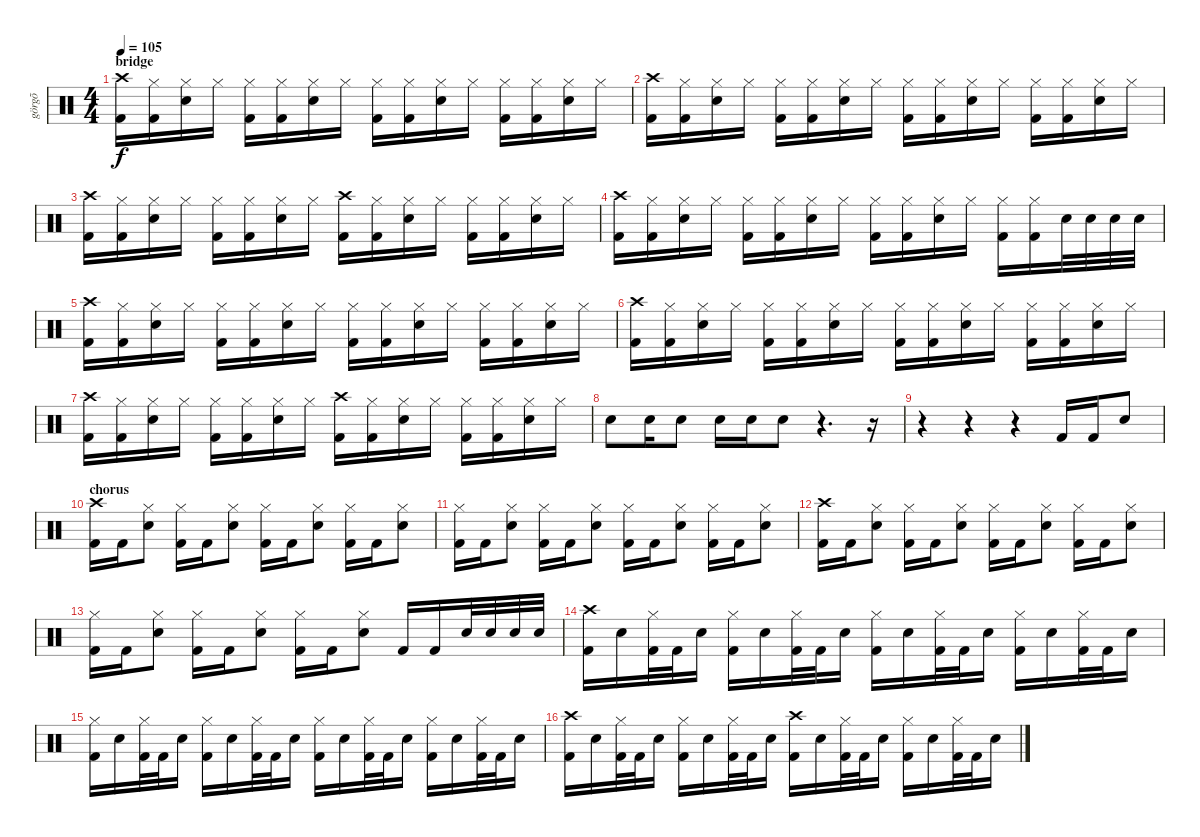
\track ("görgõ" "görgõ") {instrument percussion}
\staff {score}
\articulation defaults
\ts (4 4)
\section ("" "bridge")
\tempo 105
\clef neutral
\ks c
("Crash high (hit)" "Kick (hit) 2").16{dy f} ("Hi-Hat (closed)" "Kick (hit) 2").16 ("Hi-Hat (closed)" "Snare (hit) 2").16 "Hi-Hat (closed)".16 ("Hi-Hat (closed)" "Kick (hit) 2").16 ("Hi-Hat (closed)" "Kick (hit) 2").16 ("Hi-Hat (closed)" "Snare (hit) 2").16 "Hi-Hat (closed)".16 ("Hi-Hat (closed)" "Kick (hit) 2").16 ("Hi-Hat (closed)" "Kick (hit) 2").16 ("Hi-Hat (closed)" "Snare (hit) 2").16 "Hi-Hat (closed)".16 ("Hi-Hat (closed)" "Kick (hit) 2").16 ("Hi-Hat (closed)" "Kick (hit) 2").16 ("Hi-Hat (closed)" "Snare (hit) 2").16 "Hi-Hat (closed)".16 |
("Crash high (hit)" "Kick (hit) 2").16 ("Hi-Hat (closed)" "Kick (hit) 2").16 ("Hi-Hat (closed)" "Snare (hit) 2").16 "Hi-Hat (closed)".16 ("Hi-Hat (closed)" "Kick (hit) 2").16 ("Hi-Hat (closed)" "Kick (hit) 2").16 ("Hi-Hat (closed)" "Snare (hit) 2").16 "Hi-Hat (closed)".16 ("Hi-Hat (closed)" "Kick (hit) 2").16 ("Hi-Hat (closed)" "Kick (hit) 2").16 ("Hi-Hat (closed)" "Snare (hit) 2").16 "Hi-Hat (closed)".16 ("Hi-Hat (closed)" "Kick (hit) 2").16 ("Hi-Hat (closed)" "Kick (hit) 2").16 ("Hi-Hat (closed)" "Snare (hit) 2").16 "Hi-Hat (closed)".16 |
("Crash high (hit)" "Kick (hit) 2").16 ("Hi-Hat (closed)" "Kick (hit) 2").16 ("Hi-Hat (closed)" "Snare (hit) 2").16 "Hi-Hat (closed)".16 ("Hi-Hat (closed)" "Kick (hit) 2").16 ("Hi-Hat (closed)" "Kick (hit) 2").16 ("Hi-Hat (closed)" "Snare (hit) 2").16 "Hi-Hat (closed)".16 ("Crash high (hit)" "Kick (hit) 2").16 ("Hi-Hat (closed)" "Kick (hit) 2").16 ("Hi-Hat (closed)" "Snare (hit) 2").16 "Hi-Hat (closed)".16 ("Hi-Hat (closed)" "Kick (hit) 2").16 ("Hi-Hat (closed)" "Kick (hit) 2").16 ("Hi-Hat (closed)" "Snare (hit) 2").16 "Hi-Hat (closed)".16 |
("Crash high (hit)" "Kick (hit) 2").16 ("Hi-Hat (closed)" "Kick (hit) 2").16 ("Hi-Hat (closed)" "Snare (hit) 2").16 "Hi-Hat (closed)".16 ("Hi-Hat (closed)" "Kick (hit) 2").16 ("Hi-Hat (closed)" "Kick (hit) 2").16 ("Hi-Hat (closed)" "Snare (hit) 2").16 "Hi-Hat (closed)".16 ("Hi-Hat (closed)" "Kick (hit) 2").16 ("Hi-Hat (closed)" "Kick (hit) 2").16 ("Hi-Hat (closed)" "Snare (hit) 2").16 "Hi-Hat (closed)".16 ("Hi-Hat (closed)" "Kick (hit) 2").16 ("Hi-Hat (closed)" "Kick (hit) 2").16 "Snare (hit) 2".32 "Snare (hit) 2".32 "Snare (hit) 2".32 "Snare (hit) 2".32 |
("Crash high (hit)" "Kick (hit) 2").16 ("Hi-Hat (closed)" "Kick (hit) 2").16 ("Hi-Hat (closed)" "Snare (hit) 2").16 "Hi-Hat (closed)".16 ("Hi-Hat (closed)" "Kick (hit) 2").16 ("Hi-Hat (closed)" "Kick (hit) 2").16 ("Hi-Hat (closed)" "Snare (hit) 2").16 "Hi-Hat (closed)".16 ("Hi-Hat (closed)" "Kick (hit) 2").16 ("Hi-Hat (closed)" "Kick (hit) 2").16 ("Hi-Hat (closed)" "Snare (hit) 2").16 "Hi-Hat (closed)".16 ("Hi-Hat (closed)" "Kick (hit) 2").16 ("Hi-Hat (closed)" "Kick (hit) 2").16 ("Hi-Hat (closed)" "Snare (hit) 2").16 "Hi-Hat (closed)".16 |
("Crash high (hit)" "Kick (hit) 2").16 ("Hi-Hat (closed)" "Kick (hit) 2").16 ("Hi-Hat (closed)" "Snare (hit) 2").16 "Hi-Hat (closed)".16 ("Hi-Hat (closed)" "Kick (hit) 2").16 ("Hi-Hat (closed)" "Kick (hit) 2").16 ("Hi-Hat (closed)" "Snare (hit) 2").16 "Hi-Hat (closed)".16 ("Hi-Hat (closed)" "Kick (hit) 2").16 ("Hi-Hat (closed)" "Kick (hit) 2").16 ("Hi-Hat (closed)" "Snare (hit) 2").16 "Hi-Hat (closed)".16 ("Hi-Hat (closed)" "Kick (hit) 2").16 ("Hi-Hat (closed)" "Kick (hit) 2").16 ("Hi-Hat (closed)" "Snare (hit) 2").16 "Hi-Hat (closed)".16 |
("Crash high (hit)" "Kick (hit) 2").16 ("Hi-Hat (closed)" "Kick (hit) 2").16 ("Hi-Hat (closed)" "Snare (hit) 2").16 "Hi-Hat (closed)".16 ("Hi-Hat (closed)" "Kick (hit) 2").16 ("Hi-Hat (closed)" "Kick (hit) 2").16 ("Hi-Hat (closed)" "Snare (hit) 2").16 "Hi-Hat (closed)".16 ("Crash high (hit)" "Kick (hit) 2").16 ("Hi-Hat (closed)" "Kick (hit) 2").16 ("Hi-Hat (closed)" "Snare (hit) 2").16 "Hi-Hat (closed)".16 ("Hi-Hat (closed)" "Kick (hit) 2").16 ("Hi-Hat (closed)" "Kick (hit) 2").16 ("Hi-Hat (closed)" "Snare (hit) 2").16 "Hi-Hat (closed)".16 |
"Snare (hit) 2".8 "Snare (hit) 2".16 "Snare (hit) 2".8 "Snare (hit) 2".16 "Snare (hit) 2".16 "Snare (hit) 2".8 r.4{d} r.16 |
r.4 r.4 r.4 "Kick (hit) 2".16 "Kick (hit) 2".16 "Snare (hit) 2".8 |
\section ("" "chorus")
("Crash high (hit)" "Kick (hit) 2").16 "Kick (hit) 2".16 ("Hi-Hat (closed)" "Snare (hit) 2").8 ("Hi-Hat (closed)" "Kick (hit) 2").16 "Kick (hit) 2".16 ("Hi-Hat (closed)" "Snare (hit) 2").8 ("Hi-Hat (closed)" "Kick (hit) 2").16 "Kick (hit) 2".16 ("Hi-Hat (closed)" "Snare (hit) 2").8 ("Hi-Hat (closed)" "Kick (hit) 2").16 "Kick (hit) 2".16 ("Hi-Hat (closed)" "Snare (hit) 2").8 |
("Hi-Hat (closed)" "Kick (hit) 2").16 "Kick (hit) 2".16 ("Hi-Hat (closed)" "Snare (hit) 2").8 ("Hi-Hat (closed)" "Kick (hit) 2").16 "Kick (hit) 2".16 ("Hi-Hat (closed)" "Snare (hit) 2").8 ("Hi-Hat (closed)" "Kick (hit) 2").16 "Kick (hit) 2".16 ("Hi-Hat (closed)" "Snare (hit) 2").8 ("Hi-Hat (closed)" "Kick (hit) 2").16 "Kick (hit) 2".16 ("Hi-Hat (closed)" "Snare (hit) 2").8 |
("Crash high (hit)" "Kick (hit) 2").16 "Kick (hit) 2".16 ("Hi-Hat (closed)" "Snare (hit) 2").8 ("Hi-Hat (closed)" "Kick (hit) 2").16 "Kick (hit) 2".16 ("Hi-Hat (closed)" "Snare (hit) 2").8 ("Hi-Hat (closed)" "Kick (hit) 2").16 "Kick (hit) 2".16 ("Hi-Hat (closed)" "Snare (hit) 2").8 ("Hi-Hat (closed)" "Kick (hit) 2").16 "Kick (hit) 2".16 ("Hi-Hat (closed)" "Snare (hit) 2").8 |
("Hi-Hat (closed)" "Kick (hit) 2").16 "Kick (hit) 2".16 ("Hi-Hat (closed)" "Snare (hit) 2").8 ("Hi-Hat (closed)" "Kick (hit) 2").16 "Kick (hit) 2".16 ("Hi-Hat (closed)" "Snare (hit) 2").8 ("Hi-Hat (closed)" "Kick (hit) 2").16 "Kick (hit) 2".16 ("Hi-Hat (closed)" "Snare (hit) 2").8 "Kick (hit) 2".16 "Kick (hit) 2".16 "Snare (hit) 2".32 "Snare (hit) 2".32 "Snare (hit) 2".32 "Snare (hit) 2".32 |
("Crash high (hit)" "Kick (hit) 2").16 "Snare (hit) 2".16 ("Hi-Hat (closed)" "Kick (hit) 2").32 "Kick (hit) 2".32 "Snare (hit) 2".16 ("Hi-Hat (closed)" "Kick (hit) 2").16 "Snare (hit) 2".16 ("Hi-Hat (closed)" "Kick (hit) 2").32 "Kick (hit) 2".32 "Snare (hit) 2".16 ("Hi-Hat (closed)" "Kick (hit) 2").16 "Snare (hit) 2".16 ("Hi-Hat (closed)" "Kick (hit) 2").32 "Kick (hit) 2".32 "Snare (hit) 2".16 ("Hi-Hat (closed)" "Kick (hit) 2").16 "Snare (hit) 2".16 ("Hi-Hat (closed)" "Kick (hit) 2").32 "Kick (hit) 2".32 "Snare (hit) 2".16 |
("Hi-Hat (closed)" "Kick (hit) 2").16 "Snare (hit) 2".16 ("Hi-Hat (closed)" "Kick (hit) 2").32 "Kick (hit) 2".32 "Snare (hit) 2".16 ("Hi-Hat (closed)" "Kick (hit) 2").16 "Snare (hit) 2".16 ("Hi-Hat (closed)" "Kick (hit) 2").32 "Kick (hit) 2".32 "Snare (hit) 2".16 ("Hi-Hat (closed)" "Kick (hit) 2").16 "Snare (hit) 2".16 ("Hi-Hat (closed)" "Kick (hit) 2").32 "Kick (hit) 2".32 "Snare (hit) 2".16 ("Hi-Hat (closed)" "Kick (hit) 2").16 "Snare (hit) 2".16 ("Hi-Hat (closed)" "Kick (hit) 2").32 "Kick (hit) 2".32 "Snare (hit) 2".16 |
("Crash high (hit)" "Kick (hit) 2").16 "Snare (hit) 2".16 ("Hi-Hat (closed)" "Kick (hit) 2").32 "Kick (hit) 2".32 "Snare (hit) 2".16 ("Hi-Hat (closed)" "Kick (hit) 2").16 "Snare (hit) 2".16 ("Hi-Hat (closed)" "Kick (hit) 2").32 "Kick (hit) 2".32 "Snare (hit) 2".16 ("Crash high (hit)" "Kick (hit) 2").16 "Snare (hit) 2".16 ("Hi-Hat (closed)" "Kick (hit) 2").32 "Kick (hit) 2".32 "Snare (hit) 2".16 ("Hi-Hat (closed)" "Kick (hit) 2").16 "Snare (hit) 2".16 ("Hi-Hat (closed)" "Kick (hit) 2").32 "Kick (hit) 2".32 "Snare (hit) 2".16
